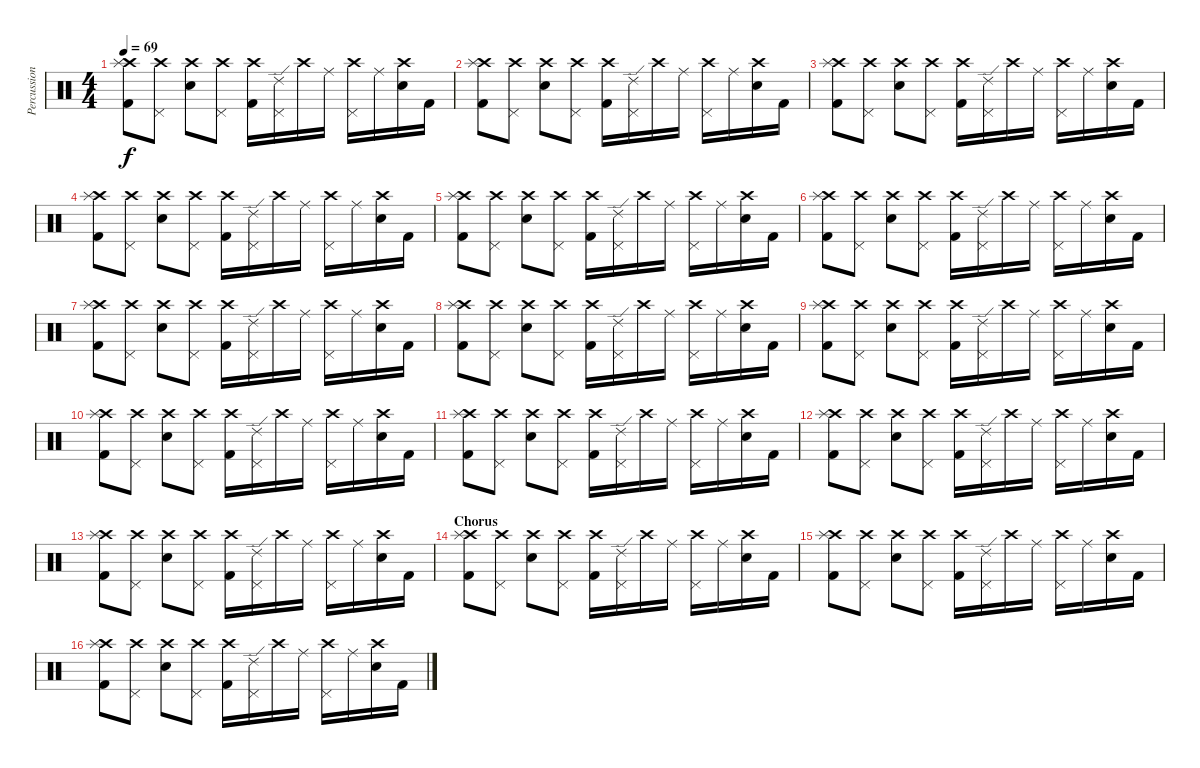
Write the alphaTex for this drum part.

\track ("Percussion" "Percussion") {instrument percussion}
\staff {score}
\articulation defaults
\ts (4 4)
\tempo 69
\clef neutral
\ks c
("Crash high (hit)" "Splash (hit)" "Kick (hit) 2").8{dy f} ("Crash high (hit)" "Pedal Hi-Hat (hit)").8 ("Crash high (hit)" "Electric Snare (hit)").8 ("Crash high (hit)" "Pedal Hi-Hat (hit)").8 ("Crash high (hit)" "Kick (hit) 2").16 ("Ride (edge) 2" "Pedal Hi-Hat (hit)").16 "Crash high (hit)".16 "Ride (middle)".16 ("Crash high (hit)" "Pedal Hi-Hat (hit)").16 "Ride (middle)".16 ("Crash high (hit)" "Electric Snare (hit)").16 "Kick (hit) 2".16 |
("Crash high (hit)" "Splash (hit)" "Kick (hit) 2").8 ("Crash high (hit)" "Pedal Hi-Hat (hit)").8 ("Crash high (hit)" "Electric Snare (hit)").8 ("Crash high (hit)" "Pedal Hi-Hat (hit)").8 ("Crash high (hit)" "Kick (hit) 2").16 ("Ride (edge) 2" "Pedal Hi-Hat (hit)").16 "Crash high (hit)".16 "Ride (middle)".16 ("Crash high (hit)" "Pedal Hi-Hat (hit)").16 "Ride (middle)".16 ("Crash high (hit)" "Electric Snare (hit)").16 "Kick (hit) 2".16 |
("Crash high (hit)" "Splash (hit)" "Kick (hit) 2").8 ("Crash high (hit)" "Pedal Hi-Hat (hit)").8 ("Crash high (hit)" "Electric Snare (hit)").8 ("Crash high (hit)" "Pedal Hi-Hat (hit)").8 ("Crash high (hit)" "Kick (hit) 2").16 ("Ride (edge) 2" "Pedal Hi-Hat (hit)").16 "Crash high (hit)".16 "Ride (middle)".16 ("Crash high (hit)" "Pedal Hi-Hat (hit)").16 "Ride (middle)".16 ("Crash high (hit)" "Electric Snare (hit)").16 "Kick (hit) 2".16 |
("Crash high (hit)" "Splash (hit)" "Kick (hit) 2").8 ("Crash high (hit)" "Pedal Hi-Hat (hit)").8 ("Crash high (hit)" "Electric Snare (hit)").8 ("Crash high (hit)" "Pedal Hi-Hat (hit)").8 ("Crash high (hit)" "Kick (hit) 2").16 ("Ride (edge) 2" "Pedal Hi-Hat (hit)").16 "Crash high (hit)".16 "Ride (middle)".16 ("Crash high (hit)" "Pedal Hi-Hat (hit)").16 "Ride (middle)".16 ("Crash high (hit)" "Electric Snare (hit)").16 "Kick (hit) 2".16 |
("Crash high (hit)" "Splash (hit)" "Kick (hit) 2").8 ("Crash high (hit)" "Pedal Hi-Hat (hit)").8 ("Crash high (hit)" "Electric Snare (hit)").8 ("Crash high (hit)" "Pedal Hi-Hat (hit)").8 ("Crash high (hit)" "Kick (hit) 2").16 ("Ride (edge) 2" "Pedal Hi-Hat (hit)").16 "Crash high (hit)".16 "Ride (middle)".16 ("Crash high (hit)" "Pedal Hi-Hat (hit)").16 "Ride (middle)".16 ("Crash high (hit)" "Electric Snare (hit)").16 "Kick (hit) 2".16 |
("Crash high (hit)" "Splash (hit)" "Kick (hit) 2").8 ("Crash high (hit)" "Pedal Hi-Hat (hit)").8 ("Crash high (hit)" "Electric Snare (hit)").8 ("Crash high (hit)" "Pedal Hi-Hat (hit)").8 ("Crash high (hit)" "Kick (hit) 2").16 ("Ride (edge) 2" "Pedal Hi-Hat (hit)").16 "Crash high (hit)".16 "Ride (middle)".16 ("Crash high (hit)" "Pedal Hi-Hat (hit)").16 "Ride (middle)".16 ("Crash high (hit)" "Electric Snare (hit)").16 "Kick (hit) 2".16 |
("Crash high (hit)" "Splash (hit)" "Kick (hit) 2").8 ("Crash high (hit)" "Pedal Hi-Hat (hit)").8 ("Crash high (hit)" "Electric Snare (hit)").8 ("Crash high (hit)" "Pedal Hi-Hat (hit)").8 ("Crash high (hit)" "Kick (hit) 2").16 ("Ride (edge) 2" "Pedal Hi-Hat (hit)").16 "Crash high (hit)".16 "Ride (middle)".16 ("Crash high (hit)" "Pedal Hi-Hat (hit)").16 "Ride (middle)".16 ("Crash high (hit)" "Electric Snare (hit)").16 "Kick (hit) 2".16 |
("Crash high (hit)" "Splash (hit)" "Kick (hit) 2").8 ("Crash high (hit)" "Pedal Hi-Hat (hit)").8 ("Crash high (hit)" "Electric Snare (hit)").8 ("Crash high (hit)" "Pedal Hi-Hat (hit)").8 ("Crash high (hit)" "Kick (hit) 2").16 ("Ride (edge) 2" "Pedal Hi-Hat (hit)").16 "Crash high (hit)".16 "Ride (middle)".16 ("Crash high (hit)" "Pedal Hi-Hat (hit)").16 "Ride (middle)".16 ("Crash high (hit)" "Electric Snare (hit)").16 "Kick (hit) 2".16 |
("Crash high (hit)" "Splash (hit)" "Kick (hit) 2").8 ("Crash high (hit)" "Pedal Hi-Hat (hit)").8 ("Crash high (hit)" "Electric Snare (hit)").8 ("Crash high (hit)" "Pedal Hi-Hat (hit)").8 ("Crash high (hit)" "Kick (hit) 2").16 ("Ride (edge) 2" "Pedal Hi-Hat (hit)").16 "Crash high (hit)".16 "Ride (middle)".16 ("Crash high (hit)" "Pedal Hi-Hat (hit)").16 "Ride (middle)".16 ("Crash high (hit)" "Electric Snare (hit)").16 "Kick (hit) 2".16 |
("Crash high (hit)" "Splash (hit)" "Kick (hit) 2").8 ("Crash high (hit)" "Pedal Hi-Hat (hit)").8 ("Crash high (hit)" "Electric Snare (hit)").8 ("Crash high (hit)" "Pedal Hi-Hat (hit)").8 ("Crash high (hit)" "Kick (hit) 2").16 ("Ride (edge) 2" "Pedal Hi-Hat (hit)").16 "Crash high (hit)".16 "Ride (middle)".16 ("Crash high (hit)" "Pedal Hi-Hat (hit)").16 "Ride (middle)".16 ("Crash high (hit)" "Electric Snare (hit)").16 "Kick (hit) 2".16 |
("Crash high (hit)" "Splash (hit)" "Kick (hit) 2").8 ("Crash high (hit)" "Pedal Hi-Hat (hit)").8 ("Crash high (hit)" "Electric Snare (hit)").8 ("Crash high (hit)" "Pedal Hi-Hat (hit)").8 ("Crash high (hit)" "Kick (hit) 2").16 ("Ride (edge) 2" "Pedal Hi-Hat (hit)").16 "Crash high (hit)".16 "Ride (middle)".16 ("Crash high (hit)" "Pedal Hi-Hat (hit)").16 "Ride (middle)".16 ("Crash high (hit)" "Electric Snare (hit)").16 "Kick (hit) 2".16 |
("Crash high (hit)" "Splash (hit)" "Kick (hit) 2").8 ("Crash high (hit)" "Pedal Hi-Hat (hit)").8 ("Crash high (hit)" "Electric Snare (hit)").8 ("Crash high (hit)" "Pedal Hi-Hat (hit)").8 ("Crash high (hit)" "Kick (hit) 2").16 ("Ride (edge) 2" "Pedal Hi-Hat (hit)").16 "Crash high (hit)".16 "Ride (middle)".16 ("Crash high (hit)" "Pedal Hi-Hat (hit)").16 "Ride (middle)".16 ("Crash high (hit)" "Electric Snare (hit)").16 "Kick (hit) 2".16 |
("Crash high (hit)" "Splash (hit)" "Kick (hit) 2").8 ("Crash high (hit)" "Pedal Hi-Hat (hit)").8 ("Crash high (hit)" "Electric Snare (hit)").8 ("Crash high (hit)" "Pedal Hi-Hat (hit)").8 ("Crash high (hit)" "Kick (hit) 2").16 ("Ride (edge) 2" "Pedal Hi-Hat (hit)").16 "Crash high (hit)".16 "Ride (middle)".16 ("Crash high (hit)" "Pedal Hi-Hat (hit)").16 "Ride (middle)".16 ("Crash high (hit)" "Electric Snare (hit)").16 "Kick (hit) 2".16 |
\section ("" "Chorus")
("Crash high (hit)" "Splash (hit)" "Kick (hit) 2").8 ("Crash high (hit)" "Pedal Hi-Hat (hit)").8 ("Crash high (hit)" "Electric Snare (hit)").8 ("Crash high (hit)" "Pedal Hi-Hat (hit)").8 ("Crash high (hit)" "Kick (hit) 2").16 ("Ride (edge) 2" "Pedal Hi-Hat (hit)").16 "Crash high (hit)".16 "Ride (middle)".16 ("Crash high (hit)" "Pedal Hi-Hat (hit)").16 "Ride (middle)".16 ("Crash high (hit)" "Electric Snare (hit)").16 "Kick (hit) 2".16 |
("Crash high (hit)" "Splash (hit)" "Kick (hit) 2").8 ("Crash high (hit)" "Pedal Hi-Hat (hit)").8 ("Crash high (hit)" "Electric Snare (hit)").8 ("Crash high (hit)" "Pedal Hi-Hat (hit)").8 ("Crash high (hit)" "Kick (hit) 2").16 ("Ride (edge) 2" "Pedal Hi-Hat (hit)").16 "Crash high (hit)".16 "Ride (middle)".16 ("Crash high (hit)" "Pedal Hi-Hat (hit)").16 "Ride (middle)".16 ("Crash high (hit)" "Electric Snare (hit)").16 "Kick (hit) 2".16 |
("Crash high (hit)" "Splash (hit)" "Kick (hit) 2").8 ("Crash high (hit)" "Pedal Hi-Hat (hit)").8 ("Crash high (hit)" "Electric Snare (hit)").8 ("Crash high (hit)" "Pedal Hi-Hat (hit)").8 ("Crash high (hit)" "Kick (hit) 2").16 ("Ride (edge) 2" "Pedal Hi-Hat (hit)").16 "Crash high (hit)".16 "Ride (middle)".16 ("Crash high (hit)" "Pedal Hi-Hat (hit)").16 "Ride (middle)".16 ("Crash high (hit)" "Electric Snare (hit)").16 "Kick (hit) 2".16
